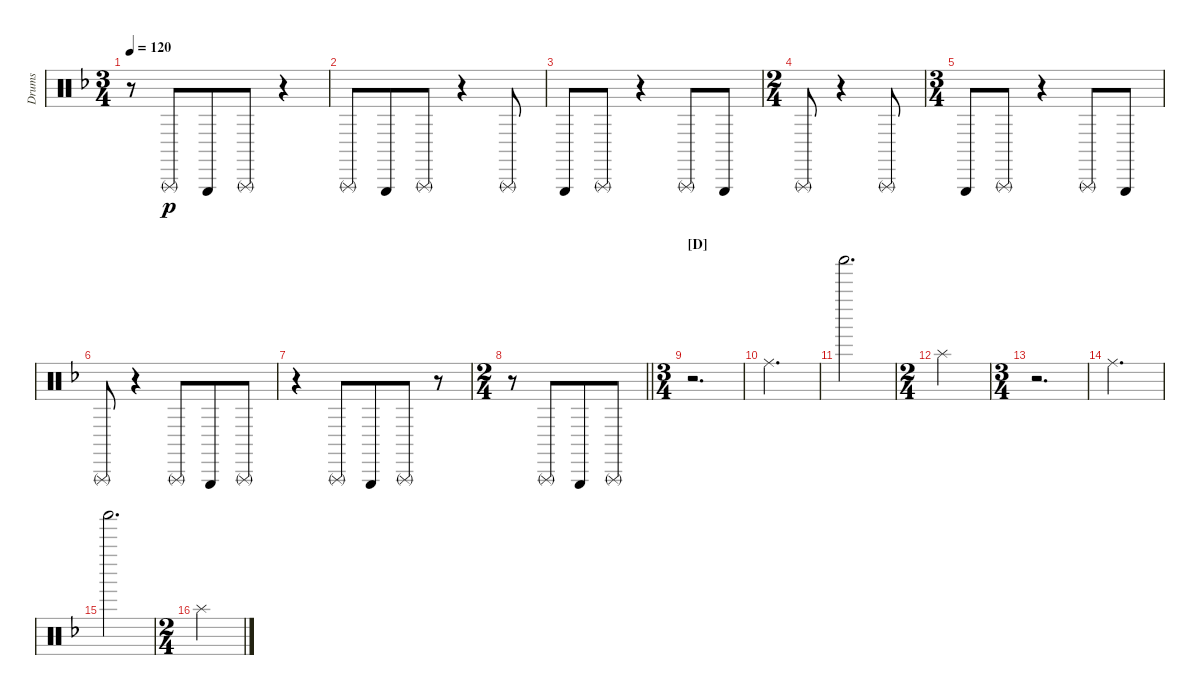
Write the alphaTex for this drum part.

\track ("Drums" "Drums") {instrument percussion}
\staff {score}
\articulation defaults
\ts (3 4)
\tempo 120
\clef neutral
\ks dminor
r.8{dy p} "Triangle (rnute)".8{beam merge} "Triangle (hit)".8 "Triangle (rnute)".8 r.4 |
"Triangle (rnute)".8 "Triangle (hit)".8{beam merge} "Triangle (rnute)".8 r.4 "Triangle (rnute)".8 |
"Triangle (hit)".8 "Triangle (rnute)".8 r.4 "Triangle (rnute)".8 "Triangle (hit)".8 |
\ts (2 4)
"Triangle (rnute)".8 r.4 "Triangle (rnute)".8 |
\ts (3 4)
"Triangle (hit)".8 "Triangle (rnute)".8 r.4 "Triangle (rnute)".8 "Triangle (hit)".8 |
"Triangle (rnute)".8 r.4 "Triangle (rnute)".8{beam merge} "Triangle (hit)".8 "Triangle (rnute)".8 |
r.4 "Triangle (rnute)".8 "Triangle (hit)".8{beam merge} "Triangle (rnute)".8 r.8 |
\ts (2 4)
\barLineRight lightlight
r.8 "Triangle (rnute)".8{beam merge} "Triangle (hit)".8 "Triangle (rnute)".8 |
\ts (3 4)
\section ("" "[D]")
r.2{d} |
"Ride (middle)".2{d} |
"Shaker (hit)".2{d} |
\ts (2 4)
"Splash (hit)".2 |
\ts (3 4)
r.2{d} |
"Ride (middle)".2{d} |
"Shaker (hit)".2{d} |
\ts (2 4)
"Splash (hit)".2
